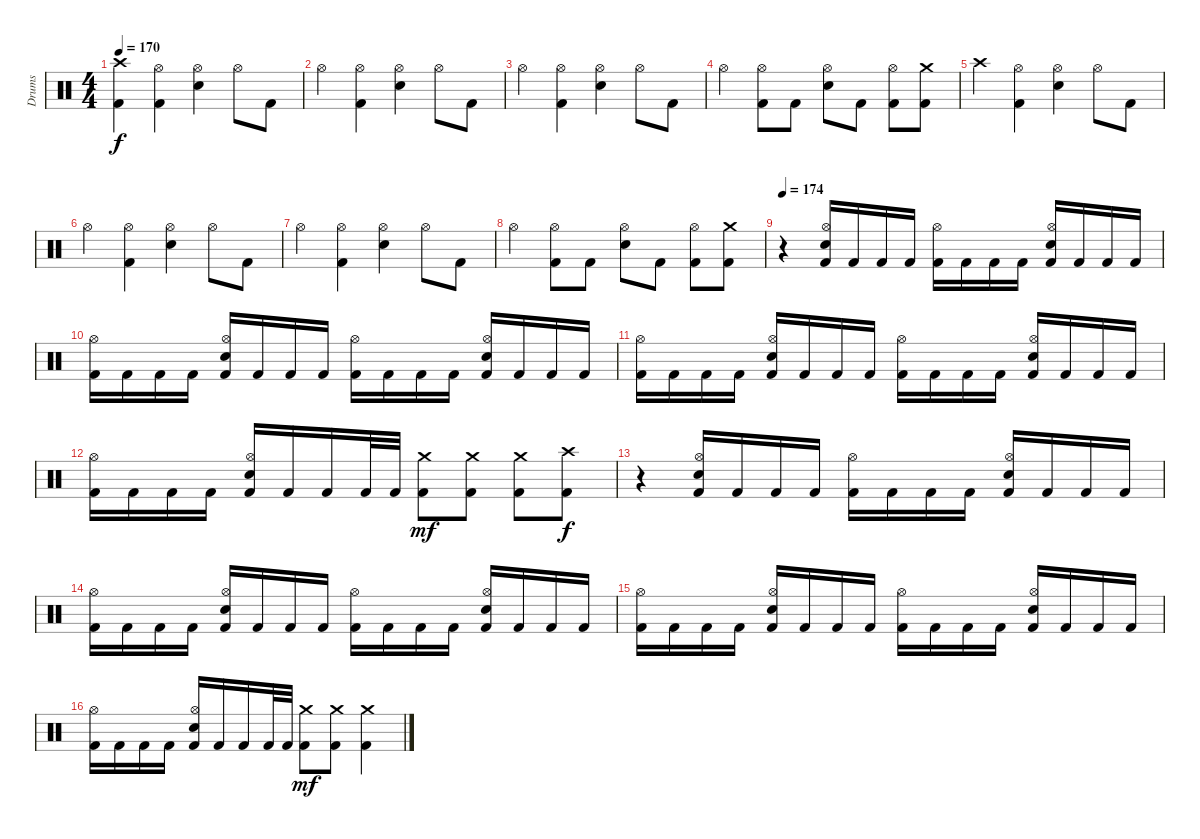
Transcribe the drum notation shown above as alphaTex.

\track ("Drums" "Drums") {instrument percussion}
\staff {score}
\articulation defaults
\ts (4 4)
\tempo 170
\clef neutral
\ks c
("Crash high (hit)" "Kick (hit) 2").4{dy f} ("Hi-Hat (open)" "Kick (hit) 2").4 ("Hi-Hat (open)" "Snare (hit) 2").4 "Hi-Hat (open)".8 "Kick (hit) 2".8 |
"Hi-Hat (open)".4 ("Hi-Hat (open)" "Kick (hit) 2").4 ("Hi-Hat (open)" "Snare (hit) 2").4 "Hi-Hat (open)".8 "Kick (hit) 2".8 |
"Hi-Hat (open)".4 ("Hi-Hat (open)" "Kick (hit) 2").4 ("Hi-Hat (open)" "Snare (hit) 2").4 "Hi-Hat (open)".8 "Kick (hit) 2".8 |
"Hi-Hat (open)".4 ("Hi-Hat (open)" "Kick (hit) 2").8 "Kick (hit) 2".8 ("Hi-Hat (open)" "Snare (hit) 2").8 "Kick (hit) 2".8 ("Hi-Hat (open)" "Kick (hit) 2").8 ("Crash medium (hit)" "Kick (hit) 2").8 |
"Crash high (hit)".4 ("Hi-Hat (open)" "Kick (hit) 2").4 ("Hi-Hat (open)" "Snare (hit) 2").4 "Hi-Hat (open)".8 "Kick (hit) 2".8 |
"Hi-Hat (open)".4 ("Hi-Hat (open)" "Kick (hit) 2").4 ("Hi-Hat (open)" "Snare (hit) 2").4 "Hi-Hat (open)".8 "Kick (hit) 2".8 |
"Hi-Hat (open)".4 ("Hi-Hat (open)" "Kick (hit) 2").4 ("Hi-Hat (open)" "Snare (hit) 2").4 "Hi-Hat (open)".8 "Kick (hit) 2".8 |
"Hi-Hat (open)".4 ("Hi-Hat (open)" "Kick (hit) 2").8 "Kick (hit) 2".8 ("Hi-Hat (open)" "Snare (hit) 2").8 "Kick (hit) 2".8 ("Hi-Hat (open)" "Kick (hit) 2").8 ("Crash medium (hit)" "Kick (hit) 2").8 |
\tempo 174
r.4 ("Hi-Hat (open)" "Snare (hit) 2" "Kick (hit) 2").16 "Kick (hit) 2".16 "Kick (hit) 2".16 "Kick (hit) 2".16 ("Hi-Hat (open)" "Kick (hit) 2").16 "Kick (hit) 2".16 "Kick (hit) 2".16 "Kick (hit) 2".16 ("Hi-Hat (open)" "Snare (hit) 2" "Kick (hit) 2").16 "Kick (hit) 2".16 "Kick (hit) 2".16 "Kick (hit) 2".16 |
("Hi-Hat (open)" "Kick (hit) 2").16 "Kick (hit) 2".16 "Kick (hit) 2".16 "Kick (hit) 2".16 ("Hi-Hat (open)" "Snare (hit) 2" "Kick (hit) 2").16 "Kick (hit) 2".16 "Kick (hit) 2".16 "Kick (hit) 2".16 ("Hi-Hat (open)" "Kick (hit) 2").16 "Kick (hit) 2".16 "Kick (hit) 2".16 "Kick (hit) 2".16 ("Hi-Hat (open)" "Snare (hit) 2" "Kick (hit) 2").16 "Kick (hit) 2".16 "Kick (hit) 2".16 "Kick (hit) 2".16 |
("Hi-Hat (open)" "Kick (hit) 2").16 "Kick (hit) 2".16 "Kick (hit) 2".16 "Kick (hit) 2".16 ("Hi-Hat (open)" "Snare (hit) 2" "Kick (hit) 2").16 "Kick (hit) 2".16 "Kick (hit) 2".16 "Kick (hit) 2".16 ("Hi-Hat (open)" "Kick (hit) 2").16 "Kick (hit) 2".16 "Kick (hit) 2".16 "Kick (hit) 2".16 ("Hi-Hat (open)" "Snare (hit) 2" "Kick (hit) 2").16 "Kick (hit) 2".16 "Kick (hit) 2".16 "Kick (hit) 2".16 |
("Hi-Hat (open)" "Kick (hit) 2").16 "Kick (hit) 2".16 "Kick (hit) 2".16 "Kick (hit) 2".16 ("Hi-Hat (open)" "Snare (hit) 2" "Kick (hit) 2").16 "Kick (hit) 2".16 "Kick (hit) 2".16 "Kick (hit) 2".32 "Kick (hit) 2".32 ("Crash medium (hit)" "Kick (hit) 2").8{dy mf} ("Crash medium (hit)" "Kick (hit) 2").8 ("Crash medium (hit)" "Kick (hit) 2").8 ("Crash high (hit)" "Kick (hit) 2").8{dy f} |
r.4 ("Hi-Hat (open)" "Snare (hit) 2" "Kick (hit) 2").16 "Kick (hit) 2".16 "Kick (hit) 2".16 "Kick (hit) 2".16 ("Hi-Hat (open)" "Kick (hit) 2").16 "Kick (hit) 2".16 "Kick (hit) 2".16 "Kick (hit) 2".16 ("Hi-Hat (open)" "Snare (hit) 2" "Kick (hit) 2").16 "Kick (hit) 2".16 "Kick (hit) 2".16 "Kick (hit) 2".16 |
("Hi-Hat (open)" "Kick (hit) 2").16 "Kick (hit) 2".16 "Kick (hit) 2".16 "Kick (hit) 2".16 ("Hi-Hat (open)" "Snare (hit) 2" "Kick (hit) 2").16 "Kick (hit) 2".16 "Kick (hit) 2".16 "Kick (hit) 2".16 ("Hi-Hat (open)" "Kick (hit) 2").16 "Kick (hit) 2".16 "Kick (hit) 2".16 "Kick (hit) 2".16 ("Hi-Hat (open)" "Snare (hit) 2" "Kick (hit) 2").16 "Kick (hit) 2".16 "Kick (hit) 2".16 "Kick (hit) 2".16 |
("Hi-Hat (open)" "Kick (hit) 2").16 "Kick (hit) 2".16 "Kick (hit) 2".16 "Kick (hit) 2".16 ("Hi-Hat (open)" "Snare (hit) 2" "Kick (hit) 2").16 "Kick (hit) 2".16 "Kick (hit) 2".16 "Kick (hit) 2".16 ("Hi-Hat (open)" "Kick (hit) 2").16 "Kick (hit) 2".16 "Kick (hit) 2".16 "Kick (hit) 2".16 ("Hi-Hat (open)" "Snare (hit) 2" "Kick (hit) 2").16 "Kick (hit) 2".16 "Kick (hit) 2".16 "Kick (hit) 2".16 |
("Hi-Hat (open)" "Kick (hit) 2").16 "Kick (hit) 2".16 "Kick (hit) 2".16 "Kick (hit) 2".16 ("Hi-Hat (open)" "Snare (hit) 2" "Kick (hit) 2").16 "Kick (hit) 2".16 "Kick (hit) 2".16 "Kick (hit) 2".32 "Kick (hit) 2".32 ("Crash medium (hit)" "Kick (hit) 2").8{dy mf} ("Crash medium (hit)" "Kick (hit) 2").8 ("Crash medium (hit)" "Kick (hit) 2").4
